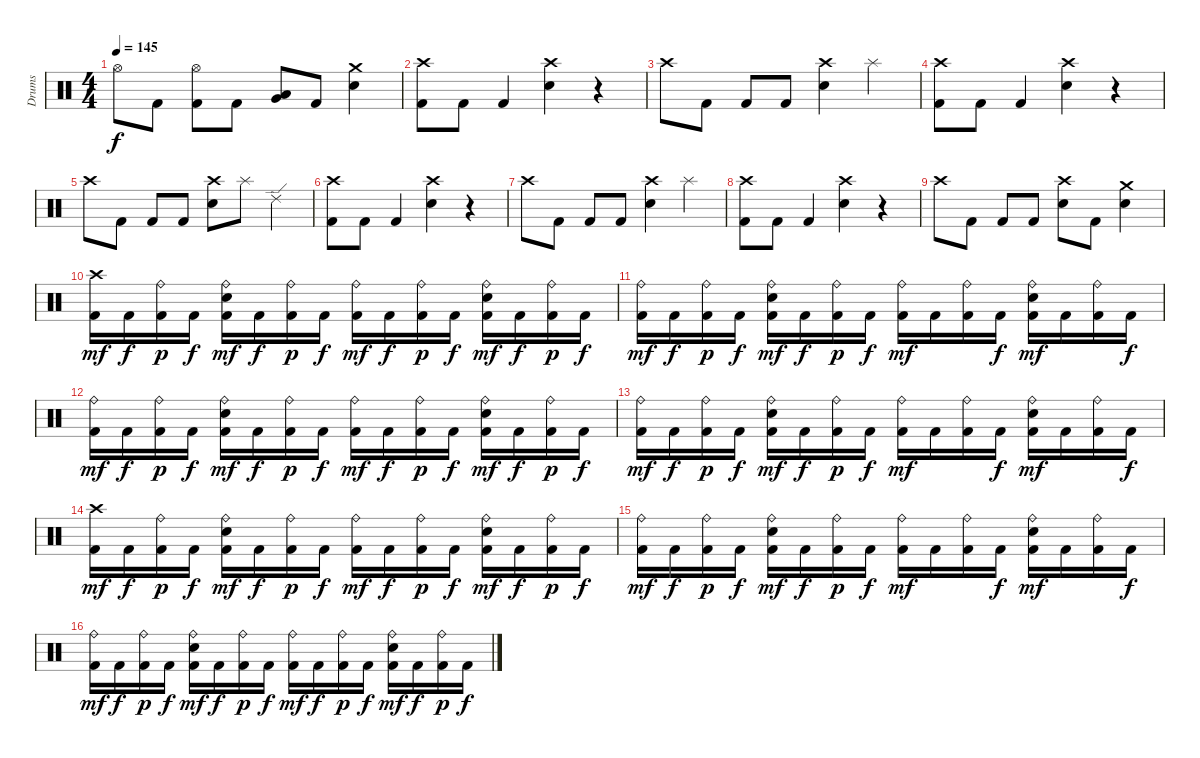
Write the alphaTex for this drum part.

\track ("Drums" "Drums") {instrument percussion}
\staff {score}
\articulation defaults
\ts (4 4)
\tempo 145
\clef neutral
\ks c "Hi-Hat (open)".8{dy f} "Kick (hit) 2".8
("Hi-Hat (open)" "Kick (hit) 2").8 "Kick (hit) 2".8 ("Low Floor Tom (hit)" "Very Low Tom (hit)").8 "Kick (hit) 2".8 ("Crash medium (hit)" "Electric Snare (hit)").4 |
("Crash high (hit)" "Kick (hit) 2").8 "Kick (hit) 2".8 "Kick (hit) 2".4 ("Crash high (hit)" "Electric Snare (hit)").4 r.4 |
"Crash high (hit)".8 "Kick (hit) 2".8 "Kick (hit) 2".8 "Kick (hit) 2".8 ("Crash high (hit)" "Electric Snare (hit)").4 "Splash (hit)".4 |
("Crash high (hit)" "Kick (hit) 2").8 "Kick (hit) 2".8 "Kick (hit) 2".4 ("Crash high (hit)" "Electric Snare (hit)").4 r.4 |
"Crash high (hit)".8 "Kick (hit) 2".8 "Kick (hit) 2".8 "Kick (hit) 2".8 ("Crash high (hit)" "Electric Snare (hit)").8 "Splash (hit)".8 "Ride (edge) 2".4 |
("Crash high (hit)" "Kick (hit) 2").8 "Kick (hit) 2".8 "Kick (hit) 2".4 ("Crash high (hit)" "Electric Snare (hit)").4 r.4 |
"Crash high (hit)".8 "Kick (hit) 2".8 "Kick (hit) 2".8 "Kick (hit) 2".8 ("Crash high (hit)" "Electric Snare (hit)").4 "Splash (hit)".4 |
("Crash high (hit)" "Kick (hit) 2").8 "Kick (hit) 2".8 "Kick (hit) 2".4 ("Crash high (hit)" "Electric Snare (hit)").4 r.4 |
"Crash high (hit)".8 "Kick (hit) 2".8 "Kick (hit) 2".8 "Kick (hit) 2".8 ("Crash high (hit)" "Electric Snare (hit)").8 "Kick (hit) 2".8 ("Crash medium (hit)" "Electric Snare (hit)").4 |
("Crash high (hit)" "Kick (hit) 2").16{dy mf} "Kick (hit) 2".16{dy f} ("Ride (bell)" "Kick (hit) 2").16{dy p} "Kick (hit) 2".16{dy f} ("Ride (bell)" "Electric Snare (hit)" "Kick (hit) 2").16{dy mf} "Kick (hit) 2".16{dy f} ("Ride (bell)" "Kick (hit) 2").16{dy p} "Kick (hit) 2".16{dy f} ("Ride (bell)" "Kick (hit) 2").16{dy mf} "Kick (hit) 2".16{dy f} ("Ride (bell)" "Kick (hit) 2").16{dy p} "Kick (hit) 2".16{dy f} ("Ride (bell)" "Electric Snare (hit)" "Kick (hit) 2").16{dy mf} "Kick (hit) 2".16{dy f} ("Ride (bell)" "Kick (hit) 2").16{dy p} "Kick (hit) 2".16{dy f} |
("Ride (bell)" "Kick (hit) 2").16{dy mf} "Kick (hit) 2".16{dy f} ("Ride (bell)" "Kick (hit) 2").16{dy p} "Kick (hit) 2".16{dy f} ("Ride (bell)" "Electric Snare (hit)" "Kick (hit) 2").16{dy mf} "Kick (hit) 2".16{dy f} ("Ride (bell)" "Kick (hit) 2").16{dy p} "Kick (hit) 2".16{dy f} ("Ride (bell)" "Kick (hit) 2").16{dy mf} "Kick (hit) 2".16 ("Ride (bell)" "Kick (hit) 2").16 "Kick (hit) 2".16{dy f} ("Ride (bell)" "Electric Snare (hit)" "Kick (hit) 2").16{dy mf} "Kick (hit) 2".16 ("Ride (bell)" "Kick (hit) 2").16 "Kick (hit) 2".16{dy f} |
("Ride (bell)" "Kick (hit) 2").16{dy mf} "Kick (hit) 2".16{dy f} ("Ride (bell)" "Kick (hit) 2").16{dy p} "Kick (hit) 2".16{dy f} ("Ride (bell)" "Electric Snare (hit)" "Kick (hit) 2").16{dy mf} "Kick (hit) 2".16{dy f} ("Ride (bell)" "Kick (hit) 2").16{dy p} "Kick (hit) 2".16{dy f} ("Ride (bell)" "Kick (hit) 2").16{dy mf} "Kick (hit) 2".16{dy f} ("Ride (bell)" "Kick (hit) 2").16{dy p} "Kick (hit) 2".16{dy f} ("Ride (bell)" "Electric Snare (hit)" "Kick (hit) 2").16{dy mf} "Kick (hit) 2".16{dy f} ("Ride (bell)" "Kick (hit) 2").16{dy p} "Kick (hit) 2".16{dy f} |
("Ride (bell)" "Kick (hit) 2").16{dy mf} "Kick (hit) 2".16{dy f} ("Ride (bell)" "Kick (hit) 2").16{dy p} "Kick (hit) 2".16{dy f} ("Ride (bell)" "Electric Snare (hit)" "Kick (hit) 2").16{dy mf} "Kick (hit) 2".16{dy f} ("Ride (bell)" "Kick (hit) 2").16{dy p} "Kick (hit) 2".16{dy f} ("Ride (bell)" "Kick (hit) 2").16{dy mf} "Kick (hit) 2".16 ("Ride (bell)" "Kick (hit) 2").16 "Kick (hit) 2".16{dy f} ("Ride (bell)" "Electric Snare (hit)" "Kick (hit) 2").16{dy mf} "Kick (hit) 2".16 ("Ride (bell)" "Kick (hit) 2").16 "Kick (hit) 2".16{dy f} |
("Crash high (hit)" "Kick (hit) 2").16{dy mf} "Kick (hit) 2".16{dy f} ("Ride (bell)" "Kick (hit) 2").16{dy p} "Kick (hit) 2".16{dy f} ("Ride (bell)" "Electric Snare (hit)" "Kick (hit) 2").16{dy mf} "Kick (hit) 2".16{dy f} ("Ride (bell)" "Kick (hit) 2").16{dy p} "Kick (hit) 2".16{dy f} ("Ride (bell)" "Kick (hit) 2").16{dy mf} "Kick (hit) 2".16{dy f} ("Ride (bell)" "Kick (hit) 2").16{dy p} "Kick (hit) 2".16{dy f} ("Ride (bell)" "Electric Snare (hit)" "Kick (hit) 2").16{dy mf} "Kick (hit) 2".16{dy f} ("Ride (bell)" "Kick (hit) 2").16{dy p} "Kick (hit) 2".16{dy f} |
("Ride (bell)" "Kick (hit) 2").16{dy mf} "Kick (hit) 2".16{dy f} ("Ride (bell)" "Kick (hit) 2").16{dy p} "Kick (hit) 2".16{dy f} ("Ride (bell)" "Electric Snare (hit)" "Kick (hit) 2").16{dy mf} "Kick (hit) 2".16{dy f} ("Ride (bell)" "Kick (hit) 2").16{dy p} "Kick (hit) 2".16{dy f} ("Ride (bell)" "Kick (hit) 2").16{dy mf} "Kick (hit) 2".16 ("Ride (bell)" "Kick (hit) 2").16 "Kick (hit) 2".16{dy f} ("Ride (bell)" "Electric Snare (hit)" "Kick (hit) 2").16{dy mf} "Kick (hit) 2".16 ("Ride (bell)" "Kick (hit) 2").16 "Kick (hit) 2".16{dy f} |
("Ride (bell)" "Kick (hit) 2").16{dy mf} "Kick (hit) 2".16{dy f} ("Ride (bell)" "Kick (hit) 2").16{dy p} "Kick (hit) 2".16{dy f} ("Ride (bell)" "Electric Snare (hit)" "Kick (hit) 2").16{dy mf} "Kick (hit) 2".16{dy f} ("Ride (bell)" "Kick (hit) 2").16{dy p} "Kick (hit) 2".16{dy f} ("Ride (bell)" "Kick (hit) 2").16{dy mf} "Kick (hit) 2".16{dy f} ("Ride (bell)" "Kick (hit) 2").16{dy p} "Kick (hit) 2".16{dy f} ("Ride (bell)" "Electric Snare (hit)" "Kick (hit) 2").16{dy mf} "Kick (hit) 2".16{dy f} ("Ride (bell)" "Kick (hit) 2").16{dy p} "Kick (hit) 2".16{dy f}
